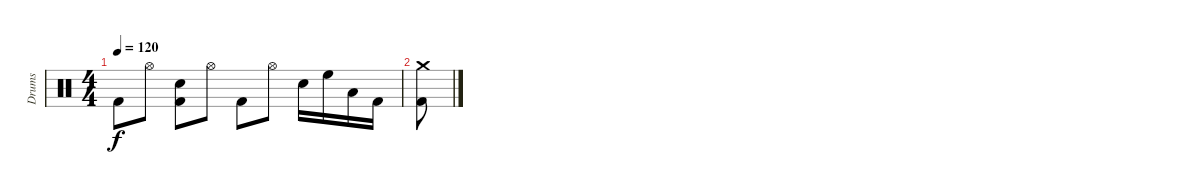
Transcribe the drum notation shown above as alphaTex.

\track ("Drums" "Drums") {instrument percussion}
\staff {score}
\articulation defaults
\ts (4 4)
\tempo 120
\clef neutral
\ks c "Kick (hit) 2".8{dy f} "Hi-Hat (open)".8
("Snare (hit) 2" "Kick (hit) 2").8 "Hi-Hat (open)".8 "Kick (hit) 2".8 "Hi-Hat (open)".8 "Snare (hit) 2".16 "High Floor Tom (hit)".16 "Low Tom (hit)".16 "Kick (hit) 2".16 |
("Crash medium (hit)" "Kick (hit) 2").8
